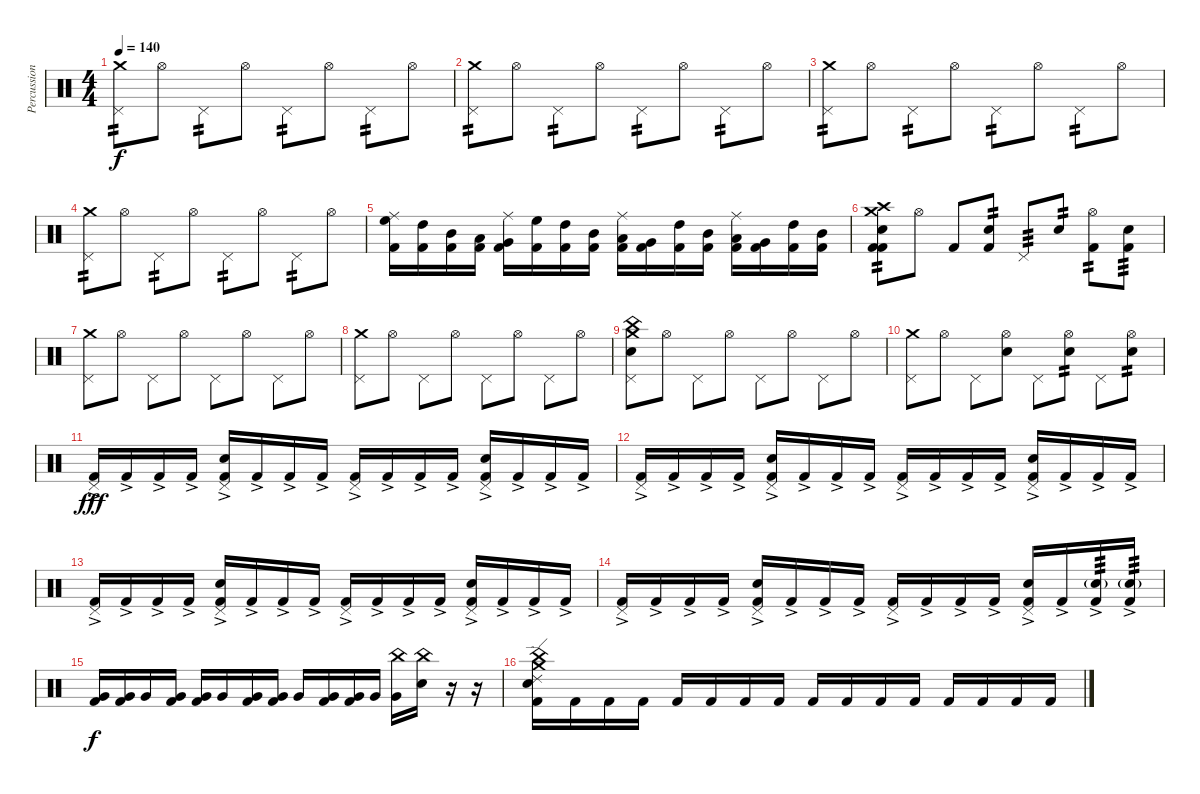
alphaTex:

\track ("Percussions" "Percussion") {instrument percussion}
\staff {score}
\articulation defaults
\ts (4 4)
\tempo 140
\clef neutral
\ks c
("Crash medium (hit)" "Pedal Hi-Hat (hit)").8{tp 2 dy f} "Hi-Hat (open)".8 "Pedal Hi-Hat (hit)".8{tp 2} "Hi-Hat (open)".8 "Pedal Hi-Hat (hit)".8{tp 2} "Hi-Hat (open)".8 "Pedal Hi-Hat (hit)".8{tp 2} "Hi-Hat (open)".8 |
("Crash medium (hit)" "Pedal Hi-Hat (hit)").8{tp 2} "Hi-Hat (open)".8 "Pedal Hi-Hat (hit)".8{tp 2} "Hi-Hat (open)".8 "Pedal Hi-Hat (hit)".8{tp 2} "Hi-Hat (open)".8 "Pedal Hi-Hat (hit)".8{tp 2} "Hi-Hat (open)".8 |
("Crash medium (hit)" "Pedal Hi-Hat (hit)").8{tp 2} "Hi-Hat (open)".8 "Pedal Hi-Hat (hit)".8{tp 2} "Hi-Hat (open)".8 "Pedal Hi-Hat (hit)".8{tp 2} "Hi-Hat (open)".8 "Pedal Hi-Hat (hit)".8{tp 2} "Hi-Hat (open)".8 |
("Crash medium (hit)" "Pedal Hi-Hat (hit)").8{tp 2} "Hi-Hat (open)".8 "Pedal Hi-Hat (hit)".8{tp 2} "Hi-Hat (open)".8 "Pedal Hi-Hat (hit)".8{tp 2} "Hi-Hat (open)".8 "Pedal Hi-Hat (hit)".8{tp 2} "Hi-Hat (open)".8 |
("Ride (middle)" "High Floor Tom (hit)" "Kick (hit) 2").16 ("High Tom (hit)" "Kick (hit) 2").16 ("Mid Tom (hit)" "Kick (hit) 2").16 ("Low Tom (hit)" "Kick (hit) 2").16 ("Ride (middle)" "Very Low Tom (hit)" "Kick (hit) 2").16 ("High Floor Tom (hit)" "Kick (hit) 2").16 ("High Tom (hit)" "Kick (hit) 2").16 ("Mid Tom (hit)" "Kick (hit) 2").16 ("Ride (middle)" "Low Tom (hit)" "Kick (hit) 2").16 ("Very Low Tom (hit)" "Kick (hit) 2").16 ("High Tom (hit)" "Kick (hit) 2").16 ("Mid Tom (hit)" "Kick (hit) 2").16 ("Ride (middle)" "Low Tom (hit)" "Kick (hit) 2").16 ("Very Low Tom (hit)" "Kick (hit) 2").16 ("High Tom (hit)" "Kick (hit) 2").16 ("Mid Tom (hit)" "Kick (hit) 2").16 |
("Crash high (hit)" "Snare (hit) 2" "Kick (hit) 2" "Crash medium (hit)" "Kick (hit) 2").8{tp 2} "Hi-Hat (open)".8 "Kick (hit) 2".8 ("Snare (hit) 2" "Kick (hit) 2").8{tp 2} "Pedal Hi-Hat (hit)".8{tp 3} "Snare (hit) 2".8{tp 2} ("Hi-Hat (open)" "Kick (hit) 2").8{tp 2} ("Snare (hit) 2" "Kick (hit) 2").8{tp 3} |
("Crash medium (hit)" "Pedal Hi-Hat (hit)").8 "Hi-Hat (open)".8 "Pedal Hi-Hat (hit)".8 "Hi-Hat (open)".8 "Pedal Hi-Hat (hit)".8 "Hi-Hat (open)".8 "Pedal Hi-Hat (hit)".8 "Hi-Hat (open)".8 |
("Crash medium (hit)" "Pedal Hi-Hat (hit)").8 "Hi-Hat (open)".8 "Pedal Hi-Hat (hit)".8 "Hi-Hat (open)".8 "Pedal Hi-Hat (hit)".8 "Hi-Hat (open)".8 "Pedal Hi-Hat (hit)".8 "Hi-Hat (open)".8 |
("Snare (hit) 2" "China (hit)" "Crash medium (hit)" "Pedal Hi-Hat (hit)").8 "Hi-Hat (open)".8 "Pedal Hi-Hat (hit)".8 "Hi-Hat (open)".8 "Pedal Hi-Hat (hit)".8 "Hi-Hat (open)".8 "Pedal Hi-Hat (hit)".8 "Hi-Hat (open)".8 |
("Crash medium (hit)" "Pedal Hi-Hat (hit)").8 "Hi-Hat (open)".8 "Pedal Hi-Hat (hit)".8 ("Snare (hit) 2" "Hi-Hat (open)").8 "Pedal Hi-Hat (hit)".8 ("Snare (hit) 2" "Hi-Hat (open)").8{tp 2} "Pedal Hi-Hat (hit)".8 ("Snare (hit) 2" "Hi-Hat (open)").8{tp 2} |
("Pedal Hi-Hat (hit)" "Kick (hit) 2"{ac}).16{dy fff} "Kick (hit) 2"{ac}.16 "Kick (hit) 2"{ac}.16 "Kick (hit) 2"{ac}.16 ("Snare (hit) 2" "Pedal Hi-Hat (hit)" "Kick (hit) 2"{ac}).16 "Kick (hit) 2"{ac}.16 "Kick (hit) 2"{ac}.16 "Kick (hit) 2"{ac}.16 ("Pedal Hi-Hat (hit)" "Kick (hit) 2"{ac}).16 "Kick (hit) 2"{ac}.16 "Kick (hit) 2"{ac}.16 "Kick (hit) 2"{ac}.16 ("Snare (hit) 2" "Pedal Hi-Hat (hit)" "Kick (hit) 2"{ac}).16 "Kick (hit) 2"{ac}.16 "Kick (hit) 2"{ac}.16 "Kick (hit) 2"{ac}.16 |
("Pedal Hi-Hat (hit)" "Kick (hit) 2"{ac}).16 "Kick (hit) 2"{ac}.16 "Kick (hit) 2"{ac}.16 "Kick (hit) 2"{ac}.16 ("Snare (hit) 2" "Pedal Hi-Hat (hit)" "Kick (hit) 2"{ac}).16 "Kick (hit) 2"{ac}.16 "Kick (hit) 2"{ac}.16 "Kick (hit) 2"{ac}.16 ("Pedal Hi-Hat (hit)" "Kick (hit) 2"{ac}).16 "Kick (hit) 2"{ac}.16 "Kick (hit) 2"{ac}.16 "Kick (hit) 2"{ac}.16 ("Snare (hit) 2" "Pedal Hi-Hat (hit)" "Kick (hit) 2"{ac}).16 "Kick (hit) 2"{ac}.16 "Kick (hit) 2"{ac}.16 "Kick (hit) 2"{ac}.16 |
("Pedal Hi-Hat (hit)" "Kick (hit) 2"{ac}).16 "Kick (hit) 2"{ac}.16 "Kick (hit) 2"{ac}.16 "Kick (hit) 2"{ac}.16 ("Snare (hit) 2" "Pedal Hi-Hat (hit)" "Kick (hit) 2"{ac}).16 "Kick (hit) 2"{ac}.16 "Kick (hit) 2"{ac}.16 "Kick (hit) 2"{ac}.16 ("Pedal Hi-Hat (hit)" "Kick (hit) 2"{ac}).16 "Kick (hit) 2"{ac}.16 "Kick (hit) 2"{ac}.16 "Kick (hit) 2"{ac}.16 ("Snare (hit) 2" "Pedal Hi-Hat (hit)" "Kick (hit) 2"{ac}).16 "Kick (hit) 2"{ac}.16 "Kick (hit) 2"{ac}.16 "Kick (hit) 2"{ac}.16 |
("Pedal Hi-Hat (hit)" "Kick (hit) 2"{ac}).16 "Kick (hit) 2"{ac}.16 "Kick (hit) 2"{ac}.16 "Kick (hit) 2"{ac}.16 ("Snare (hit) 2" "Pedal Hi-Hat (hit)" "Kick (hit) 2"{ac}).16 "Kick (hit) 2"{ac}.16 "Kick (hit) 2"{ac}.16 "Kick (hit) 2"{ac}.16 ("Pedal Hi-Hat (hit)" "Kick (hit) 2"{ac}).16 "Kick (hit) 2"{ac}.16 "Kick (hit) 2"{ac}.16 "Kick (hit) 2"{ac}.16 ("Snare (hit) 2" "Pedal Hi-Hat (hit)" "Kick (hit) 2"{ac}).16 "Kick (hit) 2"{ac}.16 ("Snare (hit) 2"{g} "Kick (hit) 2"{ac}).16{tp 3} ("Snare (hit) 2"{g} "Kick (hit) 2"{ac}).16{tp 3} |
("Kick (hit) 2" "Very Low Tom (hit)").16{dy f} ("Kick (hit) 2" "Very Low Tom (hit)").16 "Very Low Tom (hit)".16 ("Kick (hit) 2" "Very Low Tom (hit)").16 ("Kick (hit) 2" "Very Low Tom (hit)").16 "Very Low Tom (hit)".16 ("Kick (hit) 2" "Very Low Tom (hit)").16 ("Kick (hit) 2" "Very Low Tom (hit)").16 "Very Low Tom (hit)".16 ("Kick (hit) 2" "Very Low Tom (hit)").16 ("Kick (hit) 2" "Very Low Tom (hit)").16 "Very Low Tom (hit)".16 ("China (hit)" "Very Low Tom (hit)").16 ("China (hit)" "Metronome (bell)").16 r.16 r.16 |
("Snare (hit) 2" "China (hit)" "Ride (edge) 2" "Crash medium (hit)" "Kick (hit) 2").16 "Kick (hit) 2".16 "Kick (hit) 2".16 "Kick (hit) 2".16 "Kick (hit) 2".16 "Kick (hit) 2".16 "Kick (hit) 2".16 "Kick (hit) 2".16 "Kick (hit) 2".16 "Kick (hit) 2".16 "Kick (hit) 2".16 "Kick (hit) 2".16 "Kick (hit) 2".16 "Kick (hit) 2".16 "Kick (hit) 2".16 "Kick (hit) 2".16
